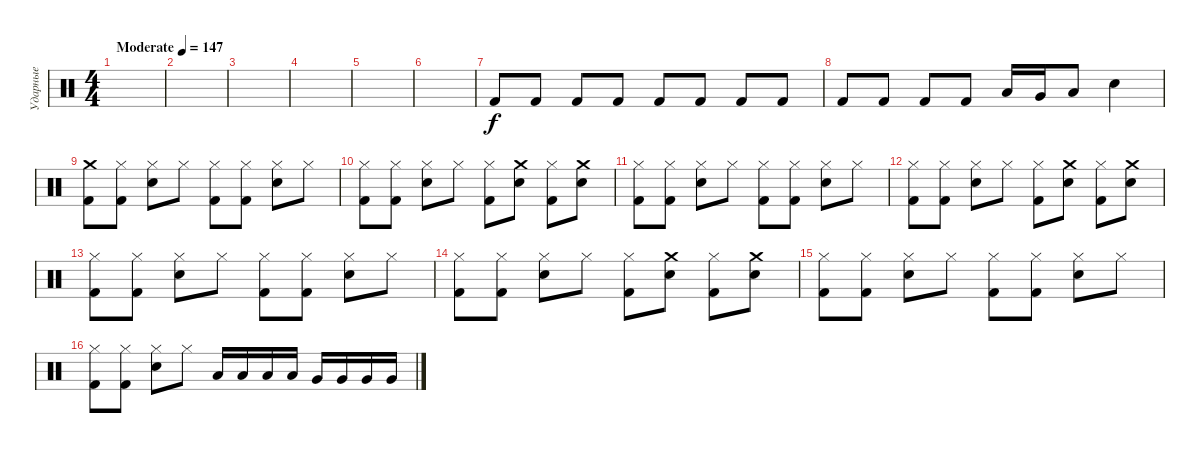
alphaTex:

\track ("Ударные" "Ударные") {instrument percussion}
\staff {score}
\articulation defaults
\ts (4 4)
\tempo (147 "Moderate")
\clef neutral
\ks c
|
|
|
|
|
|
"Kick (hit) 2".8 "Kick (hit) 2".8 "Kick (hit) 2".8 "Kick (hit) 2".8 "Kick (hit) 2".8 "Kick (hit) 2".8 "Kick (hit) 2".8 "Kick (hit) 2".8 |
"Kick (hit) 2".8 "Kick (hit) 2".8 "Kick (hit) 2".8 "Kick (hit) 2".8 "Low Tom (hit)".16 "Very Low Tom (hit)".16 "Low Tom (hit)".8 "Electric Snare (hit)".4 |
("Crash medium (hit)" "Kick (hit) 2").8 ("Hi-Hat (closed)" "Kick (hit) 2").8 ("Hi-Hat (closed)" "Electric Snare (hit)").8 "Hi-Hat (closed)".8 ("Hi-Hat (closed)" "Kick (hit) 2").8 ("Hi-Hat (closed)" "Kick (hit) 2").8 ("Hi-Hat (closed)" "Electric Snare (hit)").8 "Hi-Hat (closed)".8 |
("Hi-Hat (closed)" "Kick (hit) 2").8 ("Hi-Hat (closed)" "Kick (hit) 2").8 ("Hi-Hat (closed)" "Electric Snare (hit)").8 "Hi-Hat (closed)".8 ("Hi-Hat (closed)" "Kick (hit) 2").8 ("Crash medium (hit)" "Electric Snare (hit)").8 ("Hi-Hat (closed)" "Kick (hit) 2").8 ("Crash medium (hit)" "Electric Snare (hit)").8 |
("Hi-Hat (closed)" "Kick (hit) 2").8 ("Hi-Hat (closed)" "Kick (hit) 2").8 ("Hi-Hat (closed)" "Electric Snare (hit)").8 "Hi-Hat (closed)".8 ("Hi-Hat (closed)" "Kick (hit) 2").8 ("Hi-Hat (closed)" "Kick (hit) 2").8 ("Hi-Hat (closed)" "Electric Snare (hit)").8 "Hi-Hat (closed)".8 |
("Hi-Hat (closed)" "Kick (hit) 2").8 ("Hi-Hat (closed)" "Kick (hit) 2").8 ("Hi-Hat (closed)" "Electric Snare (hit)").8 "Hi-Hat (closed)".8 ("Hi-Hat (closed)" "Kick (hit) 2").8 ("Crash medium (hit)" "Electric Snare (hit)").8 ("Hi-Hat (closed)" "Kick (hit) 2").8 ("Crash medium (hit)" "Electric Snare (hit)").8 |
("Hi-Hat (closed)" "Kick (hit) 2").8 ("Hi-Hat (closed)" "Kick (hit) 2").8 ("Hi-Hat (closed)" "Electric Snare (hit)").8 "Hi-Hat (closed)".8 ("Hi-Hat (closed)" "Kick (hit) 2").8 ("Hi-Hat (closed)" "Kick (hit) 2").8 ("Hi-Hat (closed)" "Electric Snare (hit)").8 "Hi-Hat (closed)".8 |
("Hi-Hat (closed)" "Kick (hit) 2").8 ("Hi-Hat (closed)" "Kick (hit) 2").8 ("Hi-Hat (closed)" "Electric Snare (hit)").8 "Hi-Hat (closed)".8 ("Hi-Hat (closed)" "Kick (hit) 2").8 ("Crash medium (hit)" "Electric Snare (hit)").8 ("Hi-Hat (closed)" "Kick (hit) 2").8 ("Crash medium (hit)" "Electric Snare (hit)").8 |
("Hi-Hat (closed)" "Kick (hit) 2").8 ("Hi-Hat (closed)" "Kick (hit) 2").8 ("Hi-Hat (closed)" "Electric Snare (hit)").8 "Hi-Hat (closed)".8 ("Hi-Hat (closed)" "Kick (hit) 2").8 ("Hi-Hat (closed)" "Kick (hit) 2").8 ("Hi-Hat (closed)" "Electric Snare (hit)").8 "Hi-Hat (closed)".8 |
("Hi-Hat (closed)" "Kick (hit) 2").8 ("Hi-Hat (closed)" "Kick (hit) 2").8 ("Hi-Hat (closed)" "Electric Snare (hit)").8 "Hi-Hat (closed)".8 "Low Tom (hit)".16 "Low Tom (hit)".16 "Low Tom (hit)".16 "Low Tom (hit)".16 "Very Low Tom (hit)".16 "Very Low Tom (hit)".16 "Very Low Tom (hit)".16 "Very Low Tom (hit)".16
